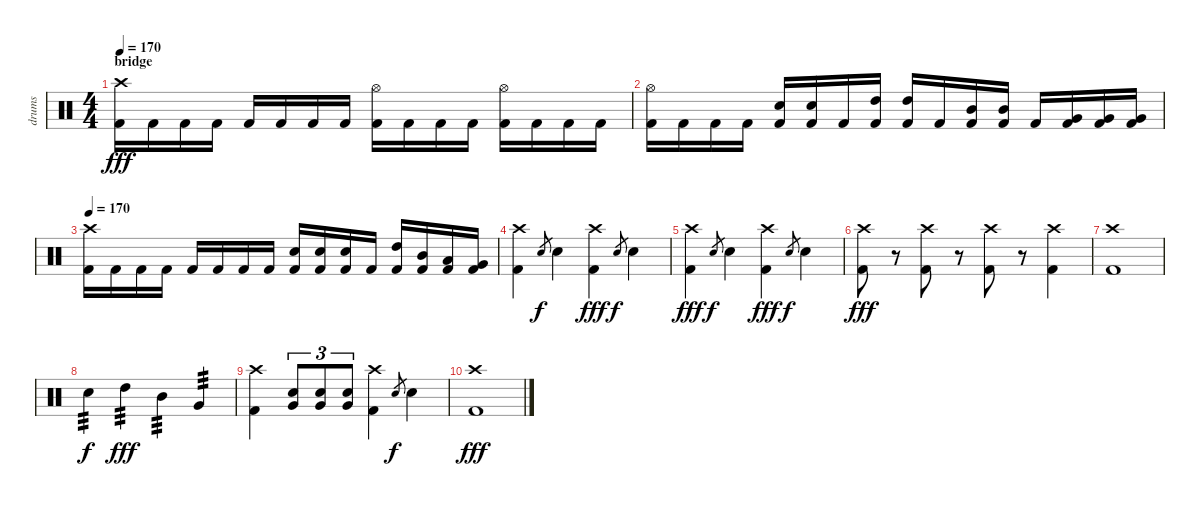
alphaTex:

\track ("drums" "drums") {instrument percussion}
\staff {score}
\articulation defaults
\ts (4 4)
\section ("" "bridge")
\tempo 170
\clef neutral
\ks c
("Crash high (hit)" "Kick (hit) 2").16{dy fff} "Kick (hit) 2".16 "Kick (hit) 2".16 "Kick (hit) 2".16 "Kick (hit) 2".16 "Kick (hit) 2".16 "Kick (hit) 2".16 "Kick (hit) 2".16 ("Hi-Hat (open)" "Kick (hit) 2").16 "Kick (hit) 2".16 "Kick (hit) 2".16 "Kick (hit) 2".16 ("Hi-Hat (open)" "Kick (hit) 2").16 "Kick (hit) 2".16 "Kick (hit) 2".16 "Kick (hit) 2".16 |
("Hi-Hat (open)" "Kick (hit) 2").16 "Kick (hit) 2".16 "Kick (hit) 2".16 "Kick (hit) 2".16 ("Snare (hit) 2" "Kick (hit) 2").16 ("Snare (hit) 2" "Kick (hit) 2").16 "Kick (hit) 2".16 ("High Tom (hit)" "Kick (hit) 2").16 ("High Tom (hit)" "Kick (hit) 2").16 "Kick (hit) 2".16 ("Mid Tom (hit)" "Kick (hit) 2").16 ("Mid Tom (hit)" "Kick (hit) 2").16 "Kick (hit) 2".16 ("Very Low Tom (hit)" "Kick (hit) 2").16 ("Very Low Tom (hit)" "Kick (hit) 2").16 ("Very Low Tom (hit)" "Kick (hit) 2").16 |
\tempo 170
("Crash high (hit)" "Kick (hit) 2").16 "Kick (hit) 2".16 "Kick (hit) 2".16 "Kick (hit) 2".16 "Kick (hit) 2".16 "Kick (hit) 2".16 "Kick (hit) 2".16 "Kick (hit) 2".16 ("Snare (hit) 2" "Kick (hit) 2").16 ("Snare (hit) 2" "Kick (hit) 2").16 ("Snare (hit) 2" "Kick (hit) 2").16 "Kick (hit) 2".16 ("High Tom (hit)" "Kick (hit) 2").16 ("Mid Tom (hit)" "Kick (hit) 2").16 ("Low Tom (hit)" "Kick (hit) 2").16 ("Very Low Tom (hit)" "Kick (hit) 2").16 |
("Crash high (hit)" "Kick (hit) 2").4 "Snare (hit) 2".8{gr dy f} "Snare (hit) 2".4 ("Crash high (hit)" "Kick (hit) 2").4{dy fff} "Snare (hit) 2".8{gr dy f} "Snare (hit) 2".4 |
("Crash high (hit)" "Kick (hit) 2").4{dy fff} "Snare (hit) 2".8{gr dy f} "Snare (hit) 2".4 ("Crash high (hit)" "Kick (hit) 2").4{dy fff} "Snare (hit) 2".8{gr dy f} "Snare (hit) 2".4 |
("Crash high (hit)" "Kick (hit) 2").8{dy fff} r.8 ("Crash high (hit)" "Kick (hit) 2").8 r.8 ("Crash high (hit)" "Kick (hit) 2").8 r.8 ("Crash high (hit)" "Kick (hit) 2").4 |
("Crash high (hit)" "Kick (hit) 2").1 |
"Snare (hit) 2".4{tp 3 dy f} "High Tom (hit)".4{tp 3 dy fff} "Mid Tom (hit)".4{tp 3} "Very Low Tom (hit)".4{tp 3} |
("Crash high (hit)" "Kick (hit) 2").4 ("Snare (hit) 2" "Very Low Tom (hit)").8{tu (3 2)} ("Snare (hit) 2" "Very Low Tom (hit)").8{tu (3 2)} ("Snare (hit) 2" "Very Low Tom (hit)").8{tu (3 2)} ("Crash high (hit)" "Kick (hit) 2").4 "Snare (hit) 2".8{gr dy f} "Snare (hit) 2".4 |
("Crash high (hit)" "Kick (hit) 2").1{dy fff}
